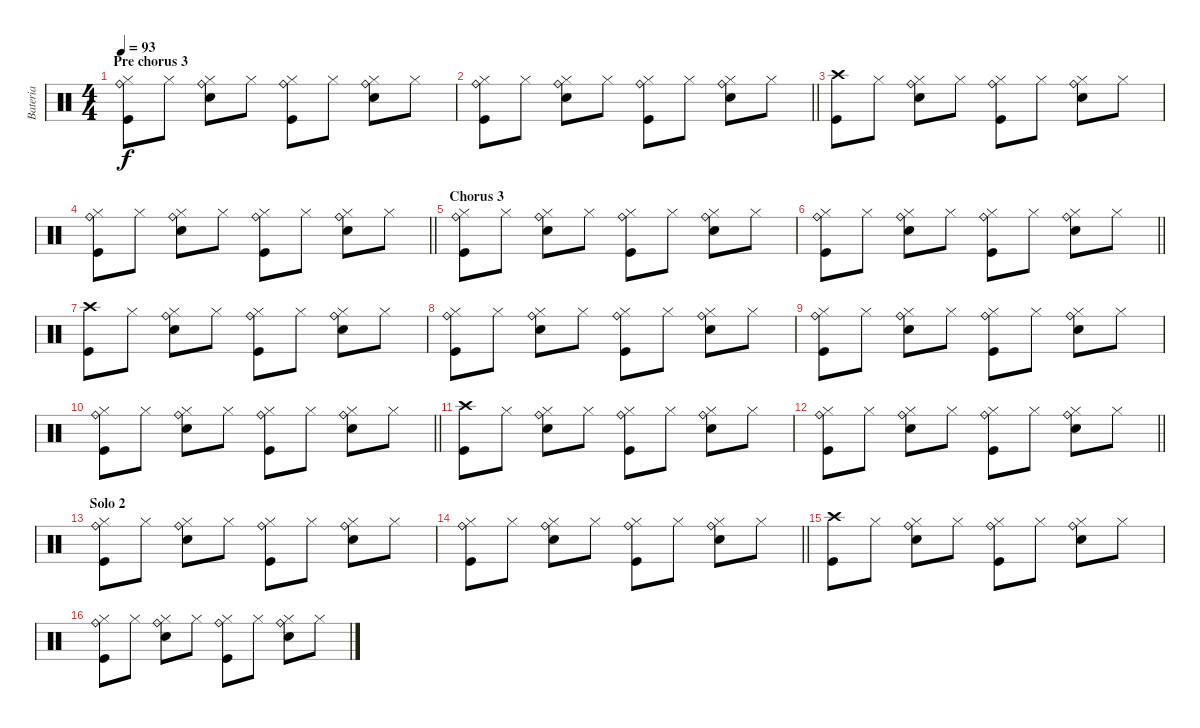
\track ("Bateria" "Bateria") {instrument percussion}
\staff {score}
\articulation defaults
\ts (4 4)
\section ("" "Pre chorus 3")
\tempo 93
\clef neutral
\ks c
("Hi-Hat (closed)" "Kick (hit)" "Ride (bell)").8{dy f} "Hi-Hat (closed)".8 ("Hi-Hat (closed)" "Snare (hit) 2" "Ride (bell)").8 "Hi-Hat (closed)".8 ("Kick (hit)" "Hi-Hat (closed)" "Ride (bell)").8 "Hi-Hat (closed)".8 ("Hi-Hat (closed)" "Snare (hit) 2" "Ride (bell)").8 "Hi-Hat (closed)".8 |
\barLineRight lightlight
("Hi-Hat (closed)" "Kick (hit)" "Ride (bell)").8 "Hi-Hat (closed)".8 ("Hi-Hat (closed)" "Snare (hit) 2" "Ride (bell)").8 "Hi-Hat (closed)".8 ("Kick (hit)" "Hi-Hat (closed)" "Ride (bell)").8 "Hi-Hat (closed)".8 ("Hi-Hat (closed)" "Snare (hit) 2" "Ride (bell)").8 "Hi-Hat (closed)".8 |
("Crash high (hit)" "Kick (hit)").8 "Hi-Hat (closed)".8 ("Hi-Hat (closed)" "Snare (hit) 2" "Ride (bell)").8 "Hi-Hat (closed)".8 ("Kick (hit)" "Hi-Hat (closed)" "Ride (bell)").8 "Hi-Hat (closed)".8 ("Hi-Hat (closed)" "Snare (hit) 2" "Ride (bell)").8 "Hi-Hat (closed)".8 |
\barLineRight lightlight
("Hi-Hat (closed)" "Kick (hit)" "Ride (bell)").8 "Hi-Hat (closed)".8 ("Hi-Hat (closed)" "Snare (hit) 2" "Ride (bell)").8 "Hi-Hat (closed)".8 ("Kick (hit)" "Hi-Hat (closed)" "Ride (bell)").8 "Hi-Hat (closed)".8 ("Hi-Hat (closed)" "Snare (hit) 2" "Ride (bell)").8 "Hi-Hat (closed)".8 |
\section ("" "Chorus 3")
("Hi-Hat (closed)" "Kick (hit)" "Ride (bell)").8 "Hi-Hat (closed)".8 ("Hi-Hat (closed)" "Snare (hit) 2" "Ride (bell)").8 "Hi-Hat (closed)".8 ("Kick (hit)" "Hi-Hat (closed)" "Ride (bell)").8 "Hi-Hat (closed)".8 ("Hi-Hat (closed)" "Snare (hit) 2" "Ride (bell)").8 "Hi-Hat (closed)".8 |
\barLineRight lightlight
("Hi-Hat (closed)" "Kick (hit)" "Ride (bell)").8 "Hi-Hat (closed)".8 ("Hi-Hat (closed)" "Snare (hit) 2" "Ride (bell)").8 "Hi-Hat (closed)".8 ("Kick (hit)" "Hi-Hat (closed)" "Ride (bell)").8 "Hi-Hat (closed)".8 ("Hi-Hat (closed)" "Snare (hit) 2" "Ride (bell)").8 "Hi-Hat (closed)".8 |
("Crash high (hit)" "Kick (hit)").8 "Hi-Hat (closed)".8 ("Hi-Hat (closed)" "Snare (hit) 2" "Ride (bell)").8 "Hi-Hat (closed)".8 ("Kick (hit)" "Hi-Hat (closed)" "Ride (bell)").8 "Hi-Hat (closed)".8 ("Hi-Hat (closed)" "Snare (hit) 2" "Ride (bell)").8 "Hi-Hat (closed)".8 |
("Hi-Hat (closed)" "Kick (hit)" "Ride (bell)").8 "Hi-Hat (closed)".8 ("Hi-Hat (closed)" "Snare (hit) 2" "Ride (bell)").8 "Hi-Hat (closed)".8 ("Kick (hit)" "Hi-Hat (closed)" "Ride (bell)").8 "Hi-Hat (closed)".8 ("Hi-Hat (closed)" "Snare (hit) 2" "Ride (bell)").8 "Hi-Hat (closed)".8 |
("Hi-Hat (closed)" "Kick (hit)" "Ride (bell)").8 "Hi-Hat (closed)".8 ("Hi-Hat (closed)" "Snare (hit) 2" "Ride (bell)").8 "Hi-Hat (closed)".8 ("Kick (hit)" "Hi-Hat (closed)" "Ride (bell)").8 "Hi-Hat (closed)".8 ("Hi-Hat (closed)" "Snare (hit) 2" "Ride (bell)").8 "Hi-Hat (closed)".8 |
\barLineRight lightlight
("Hi-Hat (closed)" "Kick (hit)" "Ride (bell)").8 "Hi-Hat (closed)".8 ("Hi-Hat (closed)" "Snare (hit) 2" "Ride (bell)").8 "Hi-Hat (closed)".8 ("Kick (hit)" "Hi-Hat (closed)" "Ride (bell)").8 "Hi-Hat (closed)".8 ("Hi-Hat (closed)" "Snare (hit) 2" "Ride (bell)").8 "Hi-Hat (closed)".8 |
("Crash high (hit)" "Kick (hit)").8 "Hi-Hat (closed)".8 ("Hi-Hat (closed)" "Snare (hit) 2" "Ride (bell)").8 "Hi-Hat (closed)".8 ("Kick (hit)" "Hi-Hat (closed)" "Ride (bell)").8 "Hi-Hat (closed)".8 ("Hi-Hat (closed)" "Snare (hit) 2" "Ride (bell)").8 "Hi-Hat (closed)".8 |
\barLineRight lightlight
("Hi-Hat (closed)" "Kick (hit)" "Ride (bell)").8 "Hi-Hat (closed)".8 ("Hi-Hat (closed)" "Snare (hit) 2" "Ride (bell)").8 "Hi-Hat (closed)".8 ("Kick (hit)" "Hi-Hat (closed)" "Ride (bell)").8 "Hi-Hat (closed)".8 ("Hi-Hat (closed)" "Snare (hit) 2" "Ride (bell)").8 "Hi-Hat (closed)".8 |
\section ("" "Solo 2")
("Hi-Hat (closed)" "Kick (hit)" "Ride (bell)").8 "Hi-Hat (closed)".8 ("Hi-Hat (closed)" "Snare (hit) 2" "Ride (bell)").8 "Hi-Hat (closed)".8 ("Kick (hit)" "Hi-Hat (closed)" "Ride (bell)").8 "Hi-Hat (closed)".8 ("Hi-Hat (closed)" "Snare (hit) 2" "Ride (bell)").8 "Hi-Hat (closed)".8 |
\barLineRight lightlight
("Hi-Hat (closed)" "Kick (hit)" "Ride (bell)").8 "Hi-Hat (closed)".8 ("Hi-Hat (closed)" "Snare (hit) 2" "Ride (bell)").8 "Hi-Hat (closed)".8 ("Kick (hit)" "Hi-Hat (closed)" "Ride (bell)").8 "Hi-Hat (closed)".8 ("Hi-Hat (closed)" "Snare (hit) 2" "Ride (bell)").8 "Hi-Hat (closed)".8 |
("Crash high (hit)" "Kick (hit)").8 "Hi-Hat (closed)".8 ("Hi-Hat (closed)" "Snare (hit) 2" "Ride (bell)").8 "Hi-Hat (closed)".8 ("Kick (hit)" "Hi-Hat (closed)" "Ride (bell)").8 "Hi-Hat (closed)".8 ("Hi-Hat (closed)" "Snare (hit) 2" "Ride (bell)").8 "Hi-Hat (closed)".8 |
("Hi-Hat (closed)" "Kick (hit)" "Ride (bell)").8 "Hi-Hat (closed)".8 ("Hi-Hat (closed)" "Snare (hit) 2" "Ride (bell)").8 "Hi-Hat (closed)".8 ("Kick (hit)" "Hi-Hat (closed)" "Ride (bell)").8 "Hi-Hat (closed)".8 ("Hi-Hat (closed)" "Snare (hit) 2" "Ride (bell)").8 "Hi-Hat (closed)".8
